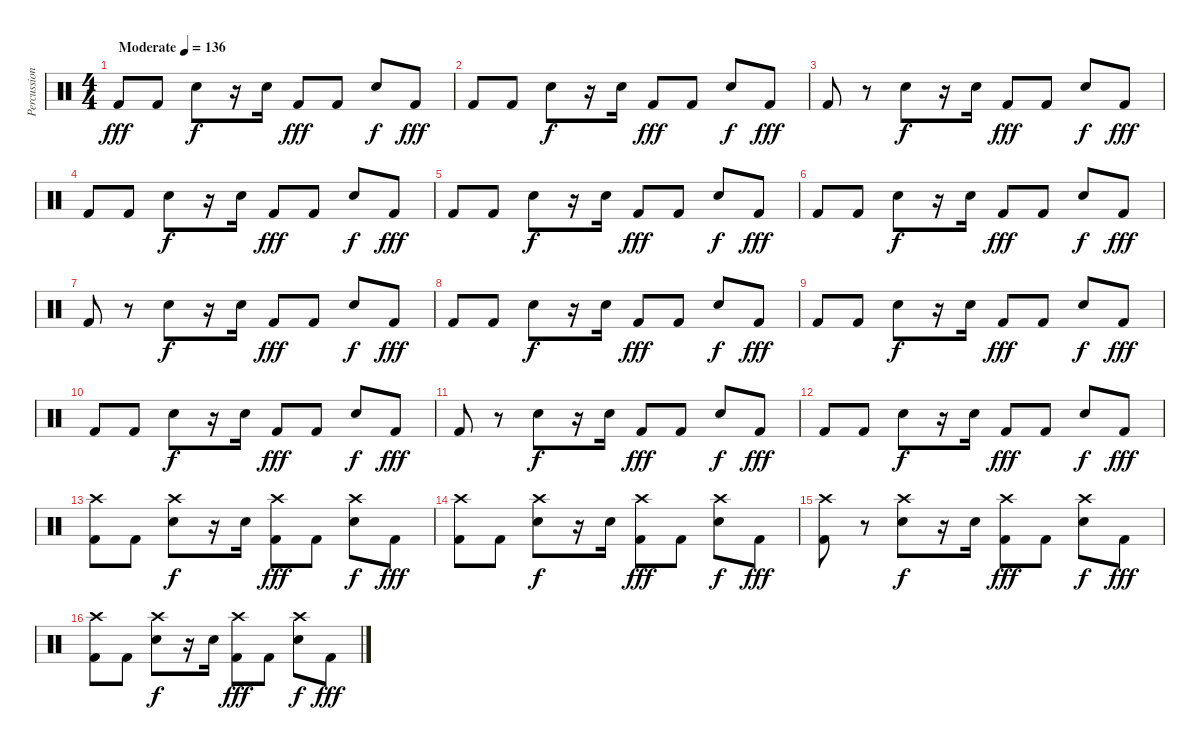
\track ("Percussion" "Percussion") {instrument percussion}
\staff {score}
\articulation defaults
\ts (4 4)
\tempo (136 "Moderate")
\clef neutral
\ks c "Kick (hit) 2".8{dy fff} "Kick (hit) 2".8 "Snare (hit) 2".8{dy f}
r.16 "Snare (hit) 2".16 "Kick (hit) 2".8{dy fff} "Kick (hit) 2".8 "Snare (hit) 2".8{dy f} "Kick (hit) 2".8{dy fff} |
"Kick (hit) 2".8 "Kick (hit) 2".8 "Snare (hit) 2".8{dy f} r.16 "Snare (hit) 2".16 "Kick (hit) 2".8{dy fff} "Kick (hit) 2".8 "Snare (hit) 2".8{dy f} "Kick (hit) 2".8{dy fff} |
"Kick (hit) 2".8 r.8 "Snare (hit) 2".8{dy f} r.16 "Snare (hit) 2".16 "Kick (hit) 2".8{dy fff} "Kick (hit) 2".8 "Snare (hit) 2".8{dy f} "Kick (hit) 2".8{dy fff} |
"Kick (hit) 2".8 "Kick (hit) 2".8 "Snare (hit) 2".8{dy f} r.16 "Snare (hit) 2".16 "Kick (hit) 2".8{dy fff} "Kick (hit) 2".8 "Snare (hit) 2".8{dy f} "Kick (hit) 2".8{dy fff} |
"Kick (hit) 2".8 "Kick (hit) 2".8 "Snare (hit) 2".8{dy f} r.16 "Snare (hit) 2".16 "Kick (hit) 2".8{dy fff} "Kick (hit) 2".8 "Snare (hit) 2".8{dy f} "Kick (hit) 2".8{dy fff} |
"Kick (hit) 2".8 "Kick (hit) 2".8 "Snare (hit) 2".8{dy f} r.16 "Snare (hit) 2".16 "Kick (hit) 2".8{dy fff} "Kick (hit) 2".8 "Snare (hit) 2".8{dy f} "Kick (hit) 2".8{dy fff} |
"Kick (hit) 2".8 r.8 "Snare (hit) 2".8{dy f} r.16 "Snare (hit) 2".16 "Kick (hit) 2".8{dy fff} "Kick (hit) 2".8 "Snare (hit) 2".8{dy f} "Kick (hit) 2".8{dy fff} |
"Kick (hit) 2".8 "Kick (hit) 2".8 "Snare (hit) 2".8{dy f} r.16 "Snare (hit) 2".16 "Kick (hit) 2".8{dy fff} "Kick (hit) 2".8 "Snare (hit) 2".8{dy f} "Kick (hit) 2".8{dy fff} |
"Kick (hit) 2".8 "Kick (hit) 2".8 "Snare (hit) 2".8{dy f} r.16 "Snare (hit) 2".16 "Kick (hit) 2".8{dy fff} "Kick (hit) 2".8 "Snare (hit) 2".8{dy f} "Kick (hit) 2".8{dy fff} |
"Kick (hit) 2".8 "Kick (hit) 2".8 "Snare (hit) 2".8{dy f} r.16 "Snare (hit) 2".16 "Kick (hit) 2".8{dy fff} "Kick (hit) 2".8 "Snare (hit) 2".8{dy f} "Kick (hit) 2".8{dy fff} |
"Kick (hit) 2".8 r.8 "Snare (hit) 2".8{dy f} r.16 "Snare (hit) 2".16 "Kick (hit) 2".8{dy fff} "Kick (hit) 2".8 "Snare (hit) 2".8{dy f} "Kick (hit) 2".8{dy fff} |
"Kick (hit) 2".8 "Kick (hit) 2".8 "Snare (hit) 2".8{dy f} r.16 "Snare (hit) 2".16 "Kick (hit) 2".8{dy fff} "Kick (hit) 2".8 "Snare (hit) 2".8{dy f} "Kick (hit) 2".8{dy fff} |
("Crash high (hit)" "Kick (hit) 2").8 "Kick (hit) 2".8 ("Crash high (hit)" "Snare (hit) 2").8{dy f} r.16 "Snare (hit) 2".16 ("Crash high (hit)" "Kick (hit) 2").8{dy fff} "Kick (hit) 2".8 ("Crash high (hit)" "Snare (hit) 2").8{dy f} "Kick (hit) 2".8{dy fff} |
("Crash high (hit)" "Kick (hit) 2").8 "Kick (hit) 2".8 ("Crash high (hit)" "Snare (hit) 2").8{dy f} r.16 "Snare (hit) 2".16 ("Crash high (hit)" "Kick (hit) 2").8{dy fff} "Kick (hit) 2".8 ("Crash high (hit)" "Snare (hit) 2").8{dy f} "Kick (hit) 2".8{dy fff} |
("Crash high (hit)" "Kick (hit) 2").8 r.8 ("Crash high (hit)" "Snare (hit) 2").8{dy f} r.16 "Snare (hit) 2".16 ("Crash high (hit)" "Kick (hit) 2").8{dy fff} "Kick (hit) 2".8 ("Crash high (hit)" "Snare (hit) 2").8{dy f} "Kick (hit) 2".8{dy fff} |
("Crash high (hit)" "Kick (hit) 2").8 "Kick (hit) 2".8 ("Crash high (hit)" "Snare (hit) 2").8{dy f} r.16 "Snare (hit) 2".16 ("Crash high (hit)" "Kick (hit) 2").8{dy fff} "Kick (hit) 2".8 ("Crash high (hit)" "Snare (hit) 2").8{dy f} "Kick (hit) 2".8{dy fff}
